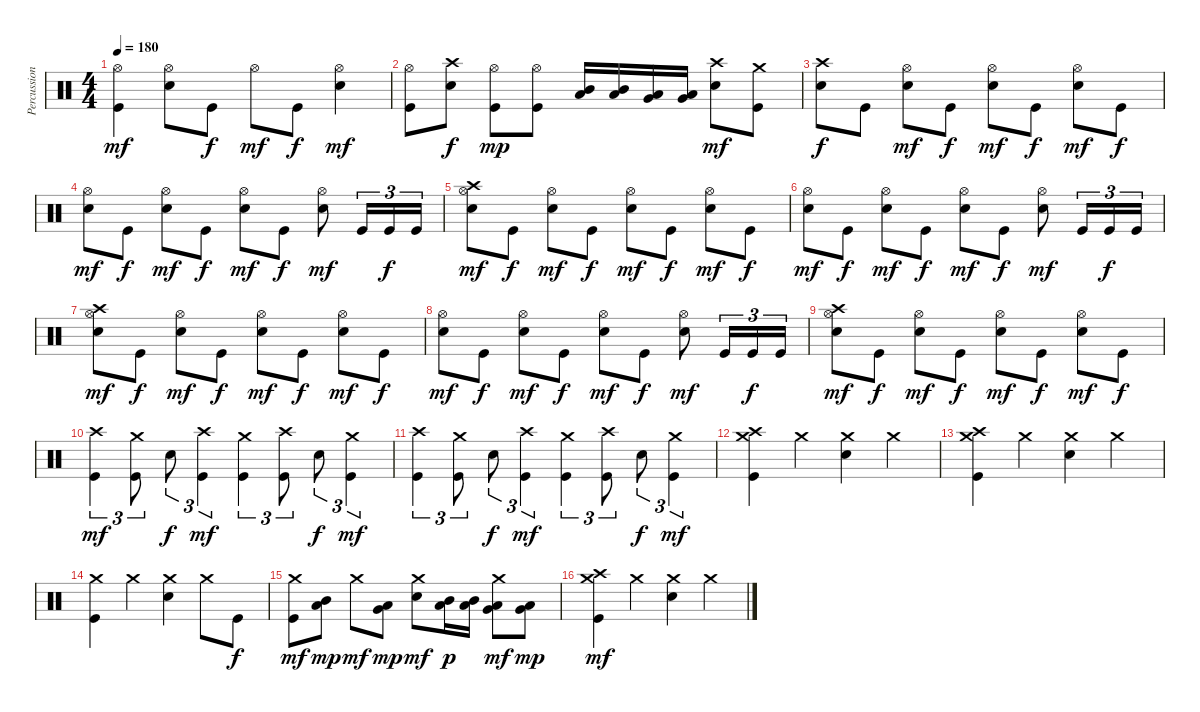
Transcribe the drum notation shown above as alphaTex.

\track ("Percussions" "Percussion") {instrument percussion}
\staff {score}
\articulation defaults
\ts (4 4)
\tempo 180
\clef neutral
\ks c
("Kick (hit)" "Hi-Hat (open)").4{dy mf} ("Electric Snare (hit)" "Hi-Hat (open)").8 "Kick (hit)".8{dy f} "Hi-Hat (open)".8{dy mf} "Kick (hit)".8{dy f} ("Electric Snare (hit)" "Hi-Hat (open)").4{dy mf} |
("Kick (hit)" "Hi-Hat (open)").8 ("Electric Snare (hit)" "Crash high (hit)").8{dy f} ("Kick (hit)" "Hi-Hat (open)").8{dy mp} ("Kick (hit)" "Hi-Hat (open)").8 ("Low Tom (hit)" "Mid Tom (hit)").16 ("Low Tom (hit)" "Mid Tom (hit)").16 ("Very Low Tom (hit)" "Low Tom (hit)").16 ("Very Low Tom (hit)" "Low Tom (hit)").16 ("Electric Snare (hit)" "Crash high (hit)").8{dy mf} ("Kick (hit)" "Crash medium (hit)").8 |
("Electric Snare (hit)" "Crash high (hit)").8{dy f} "Kick (hit)".8 ("Electric Snare (hit)" "Hi-Hat (open)").8{dy mf} "Kick (hit)".8{dy f} ("Electric Snare (hit)" "Hi-Hat (open)").8{dy mf} "Kick (hit)".8{dy f} ("Electric Snare (hit)" "Hi-Hat (open)").8{dy mf} "Kick (hit)".8{dy f} |
("Electric Snare (hit)" "Hi-Hat (open)").8{dy mf} "Kick (hit)".8{dy f} ("Electric Snare (hit)" "Hi-Hat (open)").8{dy mf} "Kick (hit)".8{dy f} ("Electric Snare (hit)" "Hi-Hat (open)").8{dy mf} "Kick (hit)".8{dy f} ("Electric Snare (hit)" "Hi-Hat (open)").8{dy mf} "Kick (hit)".16{tu (3 2)} "Kick (hit)".16{tu (3 2) dy f} "Kick (hit)".16{tu (3 2)} |
("Electric Snare (hit)" "Hi-Hat (open)" "Crash high (hit)").8{dy mf} "Kick (hit)".8{dy f} ("Electric Snare (hit)" "Hi-Hat (open)").8{dy mf} "Kick (hit)".8{dy f} ("Electric Snare (hit)" "Hi-Hat (open)").8{dy mf} "Kick (hit)".8{dy f} ("Electric Snare (hit)" "Hi-Hat (open)").8{dy mf} "Kick (hit)".8{dy f} |
("Electric Snare (hit)" "Hi-Hat (open)").8{dy mf} "Kick (hit)".8{dy f} ("Electric Snare (hit)" "Hi-Hat (open)").8{dy mf} "Kick (hit)".8{dy f} ("Electric Snare (hit)" "Hi-Hat (open)").8{dy mf} "Kick (hit)".8{dy f} ("Electric Snare (hit)" "Hi-Hat (open)").8{dy mf} "Kick (hit)".16{tu (3 2)} "Kick (hit)".16{tu (3 2) dy f} "Kick (hit)".16{tu (3 2)} |
("Electric Snare (hit)" "Hi-Hat (open)" "Crash high (hit)").8{dy mf} "Kick (hit)".8{dy f} ("Electric Snare (hit)" "Hi-Hat (open)").8{dy mf} "Kick (hit)".8{dy f} ("Electric Snare (hit)" "Hi-Hat (open)").8{dy mf} "Kick (hit)".8{dy f} ("Electric Snare (hit)" "Hi-Hat (open)").8{dy mf} "Kick (hit)".8{dy f} |
("Electric Snare (hit)" "Hi-Hat (open)").8{dy mf} "Kick (hit)".8{dy f} ("Electric Snare (hit)" "Hi-Hat (open)").8{dy mf} "Kick (hit)".8{dy f} ("Electric Snare (hit)" "Hi-Hat (open)").8{dy mf} "Kick (hit)".8{dy f} ("Electric Snare (hit)" "Hi-Hat (open)").8{dy mf} "Kick (hit)".16{tu (3 2)} "Kick (hit)".16{tu (3 2) dy f} "Kick (hit)".16{tu (3 2)} |
("Electric Snare (hit)" "Hi-Hat (open)" "Crash high (hit)").8{dy mf} "Kick (hit)".8{dy f} ("Electric Snare (hit)" "Hi-Hat (open)").8{dy mf} "Kick (hit)".8{dy f} ("Electric Snare (hit)" "Hi-Hat (open)").8{dy mf} "Kick (hit)".8{dy f} ("Electric Snare (hit)" "Hi-Hat (open)").8{dy mf} "Kick (hit)".8{dy f} |
("Kick (hit)" "Crash high (hit)").4{tu (3 2) dy mf} ("Kick (hit)" "Crash medium (hit)").8{tu (3 2)} "Electric Snare (hit)".8{tu (3 2) dy f} ("Kick (hit)" "Crash high (hit)").4{tu (3 2) dy mf} ("Kick (hit)" "Crash medium (hit)").4{tu (3 2)} ("Kick (hit)" "Crash high (hit)").8{tu (3 2)} "Electric Snare (hit)".8{tu (3 2) dy f} ("Kick (hit)" "Crash medium (hit)").4{tu (3 2) dy mf} |
("Kick (hit)" "Crash high (hit)").4{tu (3 2)} ("Kick (hit)" "Crash medium (hit)").8{tu (3 2)} "Electric Snare (hit)".8{tu (3 2) dy f} ("Kick (hit)" "Crash high (hit)").4{tu (3 2) dy mf} ("Kick (hit)" "Crash medium (hit)").4{tu (3 2)} ("Kick (hit)" "Crash high (hit)").8{tu (3 2)} "Electric Snare (hit)".8{tu (3 2) dy f} ("Kick (hit)" "Crash medium (hit)").4{tu (3 2) dy mf} |
("Kick (hit)" "Crash medium (hit)" "Crash high (hit)").4 "Crash medium (hit)".4 ("Electric Snare (hit)" "Crash medium (hit)").4 "Crash medium (hit)".4 |
("Kick (hit)" "Crash medium (hit)" "Crash high (hit)").4 "Crash medium (hit)".4 ("Electric Snare (hit)" "Crash medium (hit)").4 "Crash medium (hit)".4 |
("Kick (hit)" "Crash medium (hit)").4 "Crash medium (hit)".4 ("Electric Snare (hit)" "Crash medium (hit)").4 "Crash medium (hit)".8 "Kick (hit)".8{dy f} |
("Kick (hit)" "Crash medium (hit)").8{dy mf} ("Low Tom (hit)" "Mid Tom (hit)").8{dy mp} "Crash medium (hit)".8{dy mf} ("Low Floor Tom (hit)" "Very Low Tom (hit)").8{dy mp} ("Electric Snare (hit)" "Crash medium (hit)").8{dy mf} ("Low Tom (hit)" "Mid Tom (hit)").16{dy p} ("Low Tom (hit)" "Mid Tom (hit)").16 ("Very Low Tom (hit)" "Low Tom (hit)" "Crash medium (hit)").8{dy mf} ("Low Floor Tom (hit)" "Very Low Tom (hit)").8{dy mp} |
("Kick (hit)" "Crash medium (hit)" "Crash high (hit)").4{dy mf} "Crash medium (hit)".4 ("Electric Snare (hit)" "Crash medium (hit)").4 "Crash medium (hit)".4
